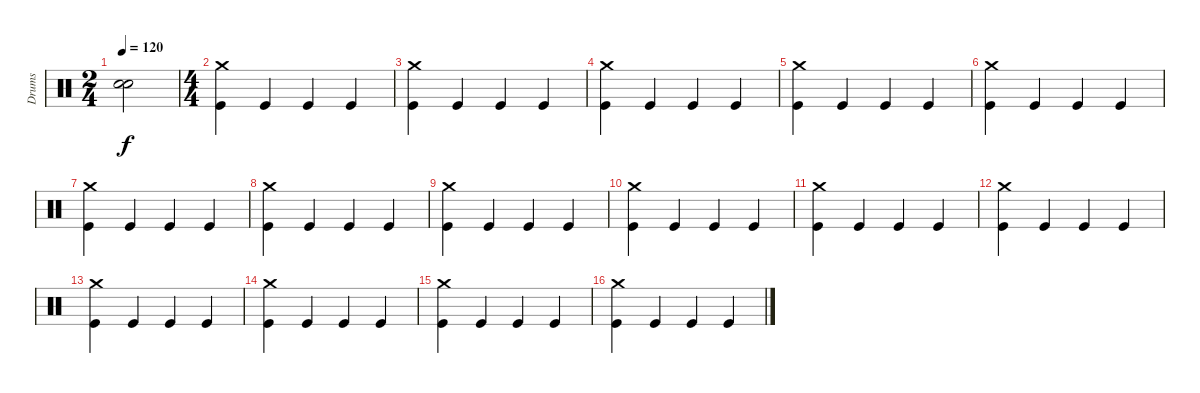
\track ("Drums" "Drums") {instrument percussion}
\staff {score}
\articulation defaults
\ts (2 4)
\tempo 120
\clef neutral
\ks c
("Snare (hit)"{t} "Snare (hit)"{t}).2{dy f} |
\ts (4 4)
("Crash medium (hit)" "Kick (hit)").4 "Kick (hit)".4 "Kick (hit)".4 "Kick (hit)".4 |
("Crash medium (hit)" "Kick (hit)").4 "Kick (hit)".4 "Kick (hit)".4 "Kick (hit)".4 |
("Crash medium (hit)" "Kick (hit)").4 "Kick (hit)".4 "Kick (hit)".4 "Kick (hit)".4 |
("Crash medium (hit)" "Kick (hit)").4 "Kick (hit)".4 "Kick (hit)".4 "Kick (hit)".4 |
("Crash medium (hit)" "Kick (hit)").4 "Kick (hit)".4 "Kick (hit)".4 "Kick (hit)".4 |
("Crash medium (hit)" "Kick (hit)").4 "Kick (hit)".4 "Kick (hit)".4 "Kick (hit)".4 |
("Crash medium (hit)" "Kick (hit)").4 "Kick (hit)".4 "Kick (hit)".4 "Kick (hit)".4 |
("Crash medium (hit)" "Kick (hit)").4 "Kick (hit)".4 "Kick (hit)".4 "Kick (hit)".4 |
("Crash medium (hit)" "Kick (hit)").4 "Kick (hit)".4 "Kick (hit)".4 "Kick (hit)".4 |
("Crash medium (hit)" "Kick (hit)").4 "Kick (hit)".4 "Kick (hit)".4 "Kick (hit)".4 |
("Crash medium (hit)" "Kick (hit)").4 "Kick (hit)".4 "Kick (hit)".4 "Kick (hit)".4 |
("Crash medium (hit)" "Kick (hit)").4 "Kick (hit)".4 "Kick (hit)".4 "Kick (hit)".4 |
("Crash medium (hit)" "Kick (hit)").4 "Kick (hit)".4 "Kick (hit)".4 "Kick (hit)".4 |
("Crash medium (hit)" "Kick (hit)").4 "Kick (hit)".4 "Kick (hit)".4 "Kick (hit)".4 |
("Crash medium (hit)" "Kick (hit)").4 "Kick (hit)".4 "Kick (hit)".4 "Kick (hit)".4
